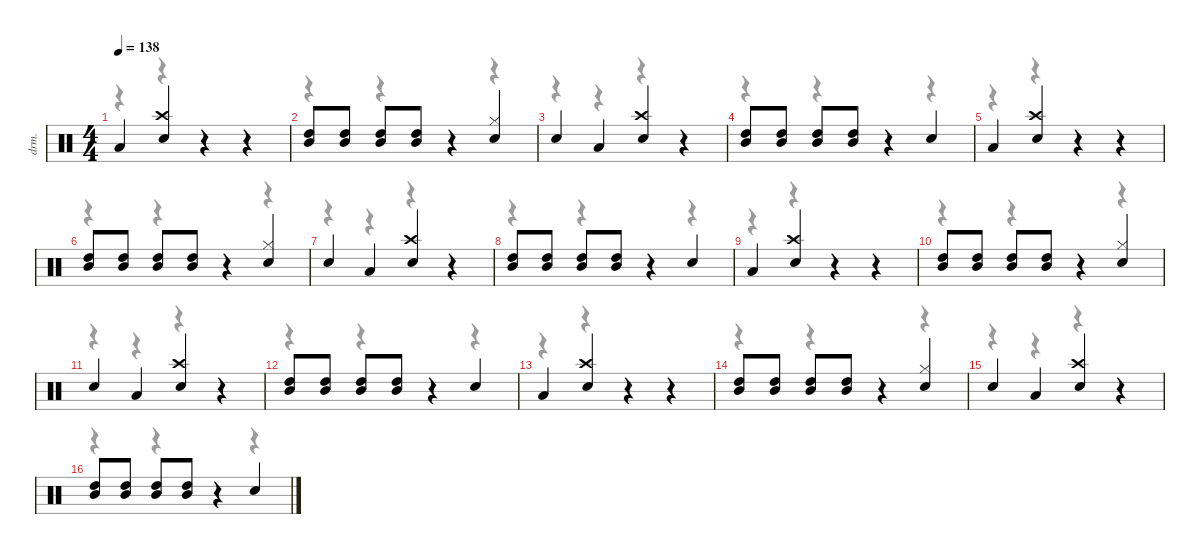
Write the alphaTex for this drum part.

\defaultSystemsLayout 4
\hideDynamics
\bracketExtendMode nobrackets
\track ("Drumkit" "drm.") {instrument percussion}
\staff {score}
\articulation defaults
\voice
\ts (4 4)
\tempo 138
\clef neutral
\ks c "Low Tom (hit)".4{dy f}
("Crash high (hit)" "Snare (hit) 2").4 r.4 r.4 |
("High Tom (hit)" "Mid Tom (hit)").8 ("Mid Tom (hit)" "High Tom (hit)").8 ("Mid Tom (hit)" "High Tom (hit)").8 ("Mid Tom (hit)" "High Tom (hit)").8 r.4 ("Hi-Hat (closed)" "Snare (hit) 2").4 |
"Snare (hit) 2".4 "Low Tom (hit)".4 ("Crash high (hit)" "Snare (hit) 2").4 r.4 |
("High Tom (hit)" "Mid Tom (hit)").8 ("Mid Tom (hit)" "High Tom (hit)").8 ("Mid Tom (hit)" "High Tom (hit)").8 ("Mid Tom (hit)" "High Tom (hit)").8 r.4 "Snare (hit) 2".4 |
"Low Tom (hit)".4 ("Crash high (hit)" "Snare (hit) 2").4 r.4 r.4 |
("High Tom (hit)" "Mid Tom (hit)").8 ("Mid Tom (hit)" "High Tom (hit)").8 ("Mid Tom (hit)" "High Tom (hit)").8 ("Mid Tom (hit)" "High Tom (hit)").8 r.4 ("Hi-Hat (closed)" "Snare (hit) 2").4 |
"Snare (hit) 2".4 "Low Tom (hit)".4 ("Crash high (hit)" "Snare (hit) 2").4 r.4 |
("High Tom (hit)" "Mid Tom (hit)").8 ("Mid Tom (hit)" "High Tom (hit)").8 ("Mid Tom (hit)" "High Tom (hit)").8 ("Mid Tom (hit)" "High Tom (hit)").8 r.4 "Snare (hit) 2".4 |
"Low Tom (hit)".4 ("Crash high (hit)" "Snare (hit) 2").4 r.4 r.4 |
("High Tom (hit)" "Mid Tom (hit)").8 ("Mid Tom (hit)" "High Tom (hit)").8 ("Mid Tom (hit)" "High Tom (hit)").8 ("Mid Tom (hit)" "High Tom (hit)").8 r.4 ("Hi-Hat (closed)" "Snare (hit) 2").4 |
"Snare (hit) 2".4 "Low Tom (hit)".4 ("Crash high (hit)" "Snare (hit) 2").4 r.4 |
("High Tom (hit)" "Mid Tom (hit)").8 ("Mid Tom (hit)" "High Tom (hit)").8 ("Mid Tom (hit)" "High Tom (hit)").8 ("Mid Tom (hit)" "High Tom (hit)").8 r.4 "Snare (hit) 2".4 |
"Low Tom (hit)".4 ("Crash high (hit)" "Snare (hit) 2").4 r.4 r.4 |
("High Tom (hit)" "Mid Tom (hit)").8 ("Mid Tom (hit)" "High Tom (hit)").8 ("Mid Tom (hit)" "High Tom (hit)").8 ("Mid Tom (hit)" "High Tom (hit)").8 r.4 ("Hi-Hat (closed)" "Snare (hit) 2").4 |
"Snare (hit) 2".4 "Low Tom (hit)".4 ("Crash high (hit)" "Snare (hit) 2").4 r.4 |
("High Tom (hit)" "Mid Tom (hit)").8 ("Mid Tom (hit)" "High Tom (hit)").8 ("Mid Tom (hit)" "High Tom (hit)").8 ("Mid Tom (hit)" "High Tom (hit)").8 r.4 "Snare (hit) 2".4
\voice
\clef neutral
\ottava regular
\simile none
\ks c
r.4{dy mf} r.4 r.4 r.4 |
r.4 r.4 r.4 r.4 |
r.4 r.4 r.4 r.4 |
r.4 r.4 r.4 r.4 |
r.4 r.4 r.4 r.4 |
r.4 r.4 r.4 r.4 |
r.4 r.4 r.4 r.4 |
r.4 r.4 r.4 r.4 |
r.4 r.4 r.4 r.4 |
r.4 r.4 r.4 r.4 |
r.4 r.4 r.4 r.4 |
r.4 r.4 r.4 r.4 |
r.4 r.4 r.4 r.4 |
r.4 r.4 r.4 r.4 |
r.4 r.4 r.4 r.4 |
r.4 r.4 r.4 r.4
